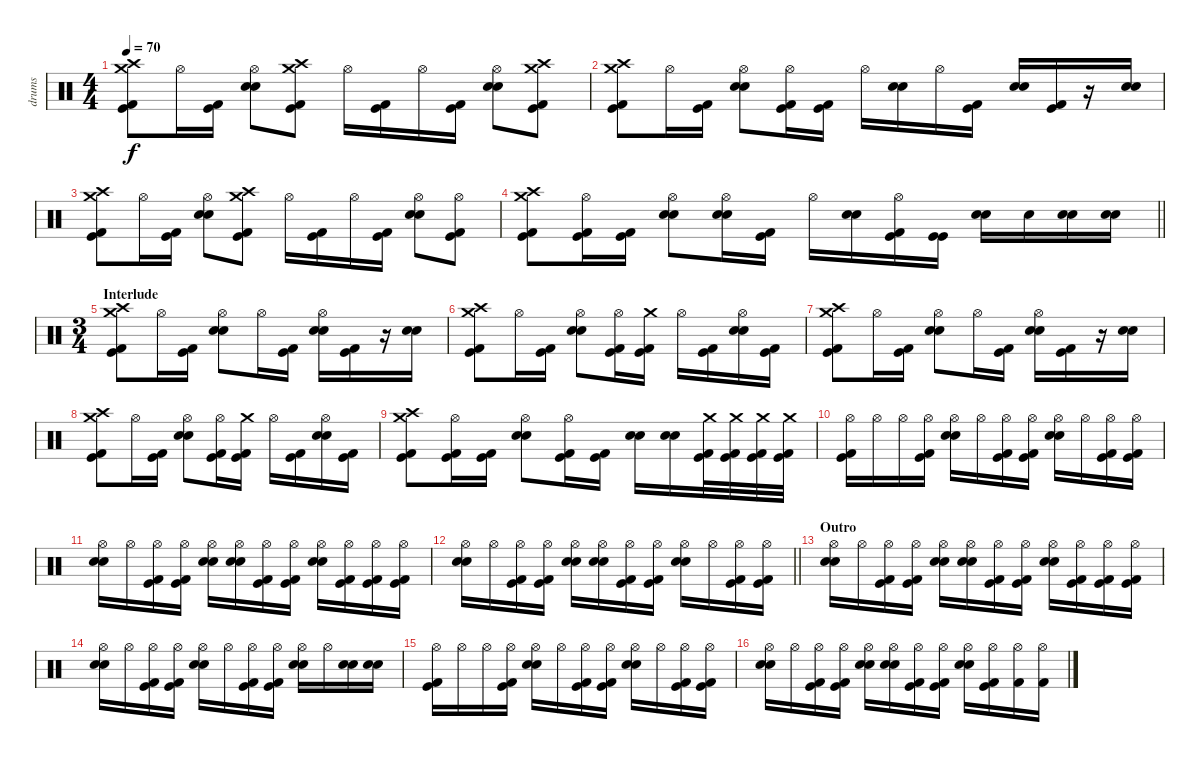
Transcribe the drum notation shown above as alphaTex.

\track ("drums" "drums") {instrument percussion}
\staff {score}
\articulation defaults
\ts (4 4)
\tempo 70
\clef neutral
\ks c
("Crash medium (hit)" "Crash high (hit)" "Kick (hit)" "Kick (hit) 2").8{dy f} "Hi-Hat (open)".16 ("Kick (hit) 2" "Kick (hit)").16 ("Hi-Hat (open)" "Electric Snare (hit)" "Electric Snare (hit)").8 ("Crash medium (hit)" "Crash high (hit)" "Kick (hit) 2" "Kick (hit)").8 "Hi-Hat (open)".16 ("Kick (hit)" "Kick (hit) 2").16 "Hi-Hat (open)".16 ("Kick (hit)" "Kick (hit) 2").16 ("Hi-Hat (open)" "Electric Snare (hit)" "Electric Snare (hit)").8 ("Crash medium (hit)" "Crash high (hit)" "Kick (hit)" "Kick (hit) 2").8 |
("Crash high (hit)" "Crash medium (hit)" "Kick (hit)" "Kick (hit) 2").8 "Hi-Hat (open)".16 ("Kick (hit)" "Kick (hit) 2").16 ("Hi-Hat (open)" "Electric Snare (hit)" "Electric Snare (hit)").8 ("Hi-Hat (open)" "Kick (hit)" "Kick (hit) 2").16 ("Kick (hit)" "Kick (hit) 2").16 "Hi-Hat (open)".16 ("Electric Snare (hit)" "Electric Snare (hit)").16 "Hi-Hat (open)".16 ("Kick (hit) 2" "Kick (hit)").16 ("Electric Snare (hit)" "Electric Snare (hit)").16 ("Kick (hit)" "Kick (hit) 2").16 r.16 ("Electric Snare (hit)" "Electric Snare (hit)").16 |
("Crash medium (hit)" "Crash high (hit)" "Kick (hit)" "Kick (hit) 2").8 "Hi-Hat (open)".16 ("Kick (hit) 2" "Kick (hit)").16 ("Hi-Hat (open)" "Electric Snare (hit)" "Electric Snare (hit)").8 ("Crash medium (hit)" "Crash high (hit)" "Kick (hit) 2" "Kick (hit)").8 "Hi-Hat (open)".16 ("Kick (hit)" "Kick (hit) 2").16 "Hi-Hat (open)".16 ("Kick (hit)" "Kick (hit) 2").16 ("Hi-Hat (open)" "Electric Snare (hit)" "Electric Snare (hit)").8 ("Hi-Hat (open)" "Kick (hit)" "Kick (hit) 2").8 |
\barLineRight lightlight
("Crash high (hit)" "Crash medium (hit)" "Kick (hit)" "Kick (hit) 2").8 ("Hi-Hat (open)" "Kick (hit)" "Kick (hit) 2").16 ("Kick (hit)" "Kick (hit) 2").16 ("Hi-Hat (open)" "Electric Snare (hit)" "Electric Snare (hit)").8 ("Hi-Hat (open)" "Electric Snare (hit)" "Electric Snare (hit)").16 ("Kick (hit) 2" "Kick (hit)").16 "Hi-Hat (open)".16 ("Electric Snare (hit)" "Electric Snare (hit)").16 ("Hi-Hat (open)" "Kick (hit)" "Kick (hit) 2").16 ("Kick (hit)" "Kick (hit)").16 ("Snare (hit) 2" "Electric Snare (hit)").16 "Electric Snare (hit)".16 ("Snare (hit) 2" "Electric Snare (hit)").16 ("Snare (hit) 2" "Electric Snare (hit)").16 |
\ts (3 4)
\section ("" "Interlude")
("Crash medium (hit)" "Crash high (hit)" "Kick (hit) 2" "Kick (hit)").8 "Hi-Hat (open)".16 ("Kick (hit) 2" "Kick (hit)").16 ("Hi-Hat (open)" "Electric Snare (hit)" "Electric Snare (hit)").8 "Hi-Hat (open)".16 ("Kick (hit)" "Kick (hit) 2").16 ("Hi-Hat (open)" "Electric Snare (hit)" "Electric Snare (hit)").16 ("Kick (hit) 2" "Kick (hit)").16 r.16 ("Electric Snare (hit)" "Electric Snare (hit)").16 |
("Crash medium (hit)" "Crash high (hit)" "Kick (hit) 2" "Kick (hit)").8 "Hi-Hat (open)".16 ("Kick (hit) 2" "Kick (hit)").16 ("Hi-Hat (open)" "Electric Snare (hit)" "Electric Snare (hit)").8 ("Hi-Hat (open)" "Kick (hit)" "Kick (hit) 2").16 ("Crash medium (hit)" "Kick (hit) 2" "Kick (hit)").16 "Hi-Hat (open)".16 ("Kick (hit) 2" "Kick (hit)").16 ("Hi-Hat (open)" "Electric Snare (hit)" "Electric Snare (hit)").16 ("Kick (hit) 2" "Kick (hit)").16 |
("Crash medium (hit)" "Crash high (hit)" "Kick (hit) 2" "Kick (hit)").8 "Hi-Hat (open)".16 ("Kick (hit) 2" "Kick (hit)").16 ("Hi-Hat (open)" "Electric Snare (hit)" "Electric Snare (hit)").8 "Hi-Hat (open)".16 ("Kick (hit)" "Kick (hit) 2").16 ("Hi-Hat (open)" "Electric Snare (hit)" "Electric Snare (hit)").16 ("Kick (hit) 2" "Kick (hit)").16 r.16 ("Electric Snare (hit)" "Electric Snare (hit)").16 |
("Crash high (hit)" "Crash medium (hit)" "Kick (hit)" "Kick (hit) 2").8 "Hi-Hat (open)".16 ("Kick (hit) 2" "Kick (hit)").16 ("Hi-Hat (open)" "Electric Snare (hit)" "Electric Snare (hit)").8 ("Hi-Hat (open)" "Kick (hit)" "Kick (hit) 2").16 ("Crash medium (hit)" "Kick (hit)" "Kick (hit) 2").16 "Hi-Hat (open)".16 ("Kick (hit) 2" "Kick (hit)").16 ("Hi-Hat (open)" "Electric Snare (hit)" "Electric Snare (hit)").16 ("Kick (hit)" "Kick (hit) 2").16 |
("Crash medium (hit)" "Crash high (hit)" "Kick (hit) 2" "Kick (hit)").8 ("Hi-Hat (open)" "Kick (hit) 2" "Kick (hit)").16 ("Kick (hit) 2" "Kick (hit)").16 ("Hi-Hat (open)" "Electric Snare (hit)" "Electric Snare (hit)").8 ("Hi-Hat (open)" "Kick (hit)" "Kick (hit) 2").16 ("Kick (hit)" "Kick (hit) 2").16 ("Electric Snare (hit)" "Electric Snare (hit)").16 ("Electric Snare (hit)" "Electric Snare (hit)").16 ("Crash medium (hit)" "Kick (hit) 2" "Kick (hit)").32 ("Crash medium (hit)" "Kick (hit) 2" "Kick (hit)").32 ("Crash medium (hit)" "Kick (hit) 2" "Kick (hit)").32 ("Crash medium (hit)" "Kick (hit) 2" "Kick (hit)").32 |
("Hi-Hat (open)" "Kick (hit) 2" "Kick (hit)").16 "Hi-Hat (open)".16 "Hi-Hat (open)".16 ("Hi-Hat (open)" "Kick (hit) 2" "Kick (hit)").16 ("Hi-Hat (open)" "Electric Snare (hit)" "Electric Snare (hit)").16 "Hi-Hat (open)".16 ("Hi-Hat (open)" "Kick (hit)" "Kick (hit) 2").16 ("Hi-Hat (open)" "Kick (hit)" "Kick (hit) 2").16 ("Hi-Hat (open)" "Electric Snare (hit)" "Electric Snare (hit)").16 "Hi-Hat (open)".16 ("Hi-Hat (open)" "Kick (hit)" "Kick (hit) 2").16 ("Hi-Hat (open)" "Kick (hit)" "Kick (hit) 2").16 |
("Hi-Hat (open)" "Electric Snare (hit)" "Electric Snare (hit)").16 "Hi-Hat (open)".16 ("Hi-Hat (open)" "Kick (hit)" "Kick (hit) 2").16 ("Hi-Hat (open)" "Kick (hit)" "Kick (hit) 2").16 ("Hi-Hat (open)" "Electric Snare (hit)" "Electric Snare (hit)").16 ("Hi-Hat (open)" "Electric Snare (hit)" "Electric Snare (hit)").16 ("Hi-Hat (open)" "Kick (hit)" "Kick (hit) 2").16 ("Hi-Hat (open)" "Kick (hit)" "Kick (hit) 2").16 ("Hi-Hat (open)" "Electric Snare (hit)" "Electric Snare (hit)").16 ("Hi-Hat (open)" "Kick (hit)" "Kick (hit) 2").16 ("Hi-Hat (open)" "Kick (hit)" "Kick (hit) 2").16 ("Hi-Hat (open)" "Kick (hit) 2" "Kick (hit)").16 |
\barLineRight lightlight
("Hi-Hat (open)" "Electric Snare (hit)" "Electric Snare (hit)").16 "Hi-Hat (open)".16 ("Hi-Hat (open)" "Kick (hit)" "Kick (hit) 2").16 ("Hi-Hat (open)" "Kick (hit)" "Kick (hit) 2").16 ("Hi-Hat (open)" "Electric Snare (hit)" "Electric Snare (hit)").16 ("Hi-Hat (open)" "Electric Snare (hit)" "Electric Snare (hit)").16 ("Hi-Hat (open)" "Kick (hit)" "Kick (hit) 2").16 ("Hi-Hat (open)" "Kick (hit)" "Kick (hit) 2").16 ("Hi-Hat (open)" "Electric Snare (hit)" "Electric Snare (hit)").16 "Hi-Hat (open)".16 ("Hi-Hat (open)" "Kick (hit) 2" "Kick (hit)").16 ("Hi-Hat (open)" "Kick (hit)" "Kick (hit) 2").16 |
\section ("" "Outro")
("Hi-Hat (open)" "Electric Snare (hit)" "Electric Snare (hit)").16 "Hi-Hat (open)".16 ("Hi-Hat (open)" "Kick (hit)" "Kick (hit) 2").16 ("Hi-Hat (open)" "Kick (hit)" "Kick (hit) 2").16 ("Hi-Hat (open)" "Electric Snare (hit)" "Electric Snare (hit)").16 ("Hi-Hat (open)" "Electric Snare (hit)" "Electric Snare (hit)").16 ("Hi-Hat (open)" "Kick (hit)" "Kick (hit) 2").16 ("Hi-Hat (open)" "Kick (hit)" "Kick (hit) 2").16 ("Hi-Hat (open)" "Electric Snare (hit)" "Electric Snare (hit)").16 ("Hi-Hat (open)" "Kick (hit)" "Kick (hit) 2").16 ("Hi-Hat (open)" "Kick (hit) 2" "Kick (hit)").16 ("Hi-Hat (open)" "Kick (hit) 2" "Kick (hit)").16 |
("Hi-Hat (open)" "Electric Snare (hit)" "Electric Snare (hit)").16 "Hi-Hat (open)".16 ("Hi-Hat (open)" "Kick (hit) 2" "Kick (hit)").16 ("Hi-Hat (open)" "Kick (hit) 2" "Kick (hit)").16 ("Hi-Hat (open)" "Electric Snare (hit)" "Electric Snare (hit)").16 "Hi-Hat (open)".16 ("Hi-Hat (open)" "Kick (hit) 2" "Kick (hit)").16 ("Hi-Hat (open)" "Kick (hit) 2" "Kick (hit)").16 ("Hi-Hat (open)" "Electric Snare (hit)" "Electric Snare (hit)").16 "Hi-Hat (open)".16 ("Electric Snare (hit)" "Electric Snare (hit)").16 ("Electric Snare (hit)" "Electric Snare (hit)").16 |
("Hi-Hat (open)" "Kick (hit) 2" "Kick (hit)").16 "Hi-Hat (open)".16 "Hi-Hat (open)".16 ("Hi-Hat (open)" "Kick (hit) 2" "Kick (hit)").16 ("Hi-Hat (open)" "Electric Snare (hit)" "Electric Snare (hit)").16 "Hi-Hat (open)".16 ("Hi-Hat (open)" "Kick (hit) 2" "Kick (hit)").16 ("Hi-Hat (open)" "Kick (hit) 2" "Kick (hit)").16 ("Hi-Hat (open)" "Electric Snare (hit)" "Electric Snare (hit)").16 "Hi-Hat (open)".16 ("Hi-Hat (open)" "Kick (hit) 2" "Kick (hit)").16 ("Hi-Hat (open)" "Kick (hit) 2" "Kick (hit)").16 |
("Hi-Hat (open)" "Electric Snare (hit)" "Electric Snare (hit)").16 "Hi-Hat (open)".16 ("Hi-Hat (open)" "Kick (hit) 2" "Kick (hit)").16 ("Hi-Hat (open)" "Kick (hit) 2" "Kick (hit)").16 ("Hi-Hat (open)" "Electric Snare (hit)" "Electric Snare (hit)").16 ("Hi-Hat (open)" "Electric Snare (hit)" "Electric Snare (hit)").16 ("Hi-Hat (open)" "Kick (hit) 2" "Kick (hit)").16 ("Hi-Hat (open)" "Kick (hit) 2" "Kick (hit)").16 ("Hi-Hat (open)" "Electric Snare (hit)" "Electric Snare (hit)").16 ("Hi-Hat (open)" "Kick (hit) 2" "Kick (hit)").16 ("Hi-Hat (open)" "Kick (hit) 2").16 ("Hi-Hat (open)" "Kick (hit) 2").16
